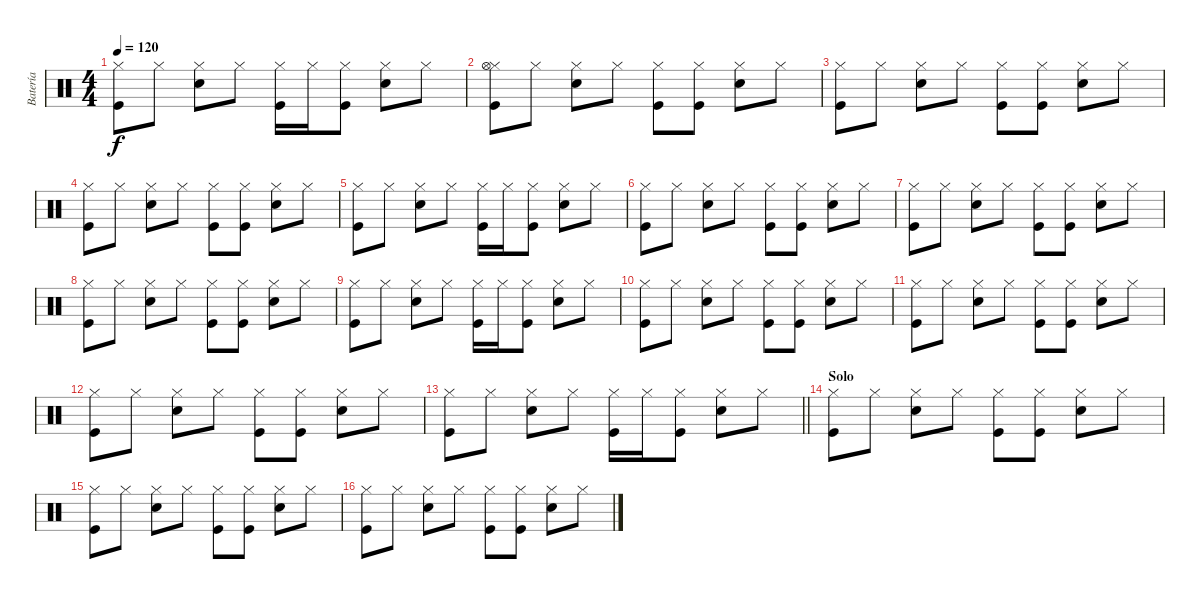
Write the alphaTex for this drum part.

\track ("Batería" "Batería") {instrument percussion}
\staff {score}
\articulation defaults
\ts (4 4)
\tempo 120
\clef neutral
\ks c
("Hi-Hat (closed)" "Kick (hit)").8{dy f} "Hi-Hat (closed)".8 ("Hi-Hat (closed)" "Electric Snare (hit)").8 "Hi-Hat (closed)".8 ("Hi-Hat (closed)" "Kick (hit)").16 "Hi-Hat (closed)".16 ("Hi-Hat (closed)" "Kick (hit)").8 ("Hi-Hat (closed)" "Electric Snare (hit)").8 "Hi-Hat (closed)".8 |
("Hi-Hat (closed)" "Kick (hit)" "Hi-Hat (open)").8 "Hi-Hat (closed)".8 ("Hi-Hat (closed)" "Electric Snare (hit)").8 "Hi-Hat (closed)".8 ("Hi-Hat (closed)" "Kick (hit)").8 ("Hi-Hat (closed)" "Kick (hit)").8 ("Hi-Hat (closed)" "Electric Snare (hit)").8 "Hi-Hat (closed)".8 |
("Hi-Hat (closed)" "Kick (hit)").8 "Hi-Hat (closed)".8 ("Hi-Hat (closed)" "Electric Snare (hit)").8 "Hi-Hat (closed)".8 ("Hi-Hat (closed)" "Kick (hit)").8 ("Hi-Hat (closed)" "Kick (hit)").8 ("Hi-Hat (closed)" "Electric Snare (hit)").8 "Hi-Hat (closed)".8 |
("Hi-Hat (closed)" "Kick (hit)").8 "Hi-Hat (closed)".8 ("Hi-Hat (closed)" "Electric Snare (hit)").8 "Hi-Hat (closed)".8 ("Hi-Hat (closed)" "Kick (hit)").8 ("Hi-Hat (closed)" "Kick (hit)").8 ("Hi-Hat (closed)" "Electric Snare (hit)").8 "Hi-Hat (closed)".8 |
("Hi-Hat (closed)" "Kick (hit)").8 "Hi-Hat (closed)".8 ("Hi-Hat (closed)" "Electric Snare (hit)").8 "Hi-Hat (closed)".8 ("Hi-Hat (closed)" "Kick (hit)").16 "Hi-Hat (closed)".16 ("Hi-Hat (closed)" "Kick (hit)").8 ("Hi-Hat (closed)" "Electric Snare (hit)").8 "Hi-Hat (closed)".8 |
("Hi-Hat (closed)" "Kick (hit)").8 "Hi-Hat (closed)".8 ("Hi-Hat (closed)" "Electric Snare (hit)").8 "Hi-Hat (closed)".8 ("Hi-Hat (closed)" "Kick (hit)").8 ("Hi-Hat (closed)" "Kick (hit)").8 ("Hi-Hat (closed)" "Electric Snare (hit)").8 "Hi-Hat (closed)".8 |
("Hi-Hat (closed)" "Kick (hit)").8 "Hi-Hat (closed)".8 ("Hi-Hat (closed)" "Electric Snare (hit)").8 "Hi-Hat (closed)".8 ("Hi-Hat (closed)" "Kick (hit)").8 ("Hi-Hat (closed)" "Kick (hit)").8 ("Hi-Hat (closed)" "Electric Snare (hit)").8 "Hi-Hat (closed)".8 |
("Hi-Hat (closed)" "Kick (hit)").8 "Hi-Hat (closed)".8 ("Hi-Hat (closed)" "Electric Snare (hit)").8 "Hi-Hat (closed)".8 ("Hi-Hat (closed)" "Kick (hit)").8 ("Hi-Hat (closed)" "Kick (hit)").8 ("Hi-Hat (closed)" "Electric Snare (hit)").8 "Hi-Hat (closed)".8 |
("Hi-Hat (closed)" "Kick (hit)").8 "Hi-Hat (closed)".8 ("Hi-Hat (closed)" "Electric Snare (hit)").8 "Hi-Hat (closed)".8 ("Hi-Hat (closed)" "Kick (hit)").16 "Hi-Hat (closed)".16 ("Hi-Hat (closed)" "Kick (hit)").8 ("Hi-Hat (closed)" "Electric Snare (hit)").8 "Hi-Hat (closed)".8 |
("Hi-Hat (closed)" "Kick (hit)").8 "Hi-Hat (closed)".8 ("Hi-Hat (closed)" "Electric Snare (hit)").8 "Hi-Hat (closed)".8 ("Hi-Hat (closed)" "Kick (hit)").8 ("Hi-Hat (closed)" "Kick (hit)").8 ("Hi-Hat (closed)" "Electric Snare (hit)").8 "Hi-Hat (closed)".8 |
("Hi-Hat (closed)" "Kick (hit)").8 "Hi-Hat (closed)".8 ("Hi-Hat (closed)" "Electric Snare (hit)").8 "Hi-Hat (closed)".8 ("Hi-Hat (closed)" "Kick (hit)").8 ("Hi-Hat (closed)" "Kick (hit)").8 ("Hi-Hat (closed)" "Electric Snare (hit)").8 "Hi-Hat (closed)".8 |
("Hi-Hat (closed)" "Kick (hit)").8 "Hi-Hat (closed)".8 ("Hi-Hat (closed)" "Electric Snare (hit)").8 "Hi-Hat (closed)".8 ("Hi-Hat (closed)" "Kick (hit)").8 ("Hi-Hat (closed)" "Kick (hit)").8 ("Hi-Hat (closed)" "Electric Snare (hit)").8 "Hi-Hat (closed)".8 |
\barLineRight lightlight
("Hi-Hat (closed)" "Kick (hit)").8 "Hi-Hat (closed)".8 ("Hi-Hat (closed)" "Electric Snare (hit)").8 "Hi-Hat (closed)".8 ("Hi-Hat (closed)" "Kick (hit)").16 "Hi-Hat (closed)".16 ("Hi-Hat (closed)" "Kick (hit)").8 ("Hi-Hat (closed)" "Electric Snare (hit)").8 "Hi-Hat (closed)".8 |
\section ("" "Solo")
("Hi-Hat (closed)" "Kick (hit)").8 "Hi-Hat (closed)".8 ("Hi-Hat (closed)" "Electric Snare (hit)").8 "Hi-Hat (closed)".8 ("Hi-Hat (closed)" "Kick (hit)").8 ("Hi-Hat (closed)" "Kick (hit)").8 ("Hi-Hat (closed)" "Electric Snare (hit)").8 "Hi-Hat (closed)".8 |
("Hi-Hat (closed)" "Kick (hit)").8 "Hi-Hat (closed)".8 ("Hi-Hat (closed)" "Electric Snare (hit)").8 "Hi-Hat (closed)".8 ("Hi-Hat (closed)" "Kick (hit)").8 ("Hi-Hat (closed)" "Kick (hit)").8 ("Hi-Hat (closed)" "Electric Snare (hit)").8 "Hi-Hat (closed)".8 |
("Hi-Hat (closed)" "Kick (hit)").8 "Hi-Hat (closed)".8 ("Hi-Hat (closed)" "Electric Snare (hit)").8 "Hi-Hat (closed)".8 ("Hi-Hat (closed)" "Kick (hit)").8 ("Hi-Hat (closed)" "Kick (hit)").8 ("Hi-Hat (closed)" "Electric Snare (hit)").8 "Hi-Hat (closed)".8
